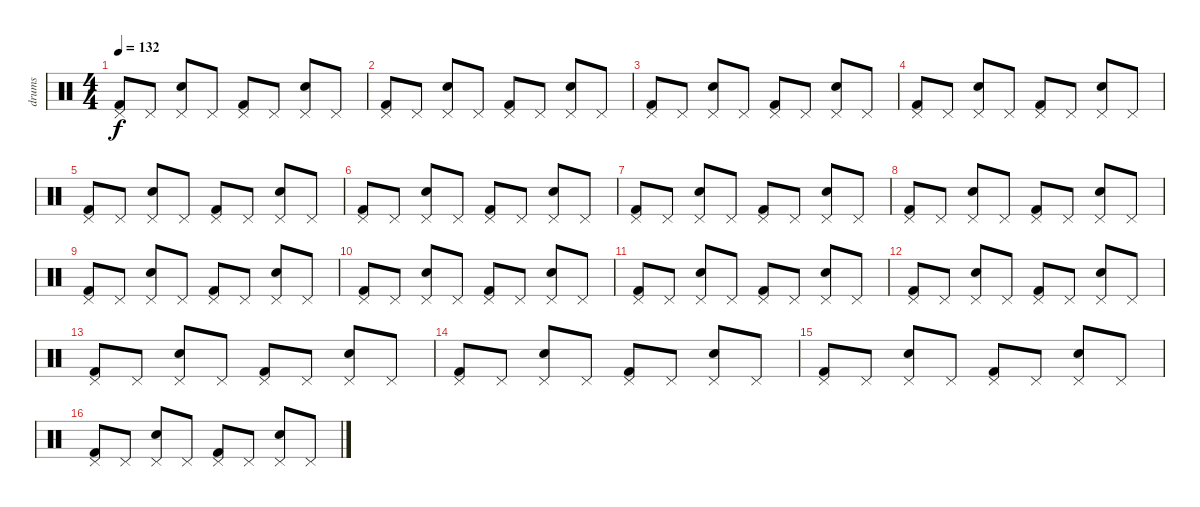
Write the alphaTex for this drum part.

\track ("drums" "drums") {instrument percussion}
\staff {score}
\articulation defaults
\ts (4 4)
\tempo 132
\clef neutral
\ks c
("Kick (hit) 2" "Pedal Hi-Hat (hit)").8{dy f} "Pedal Hi-Hat (hit)".8 ("Electric Snare (hit)" "Pedal Hi-Hat (hit)").8 "Pedal Hi-Hat (hit)".8 ("Kick (hit) 2" "Pedal Hi-Hat (hit)").8 "Pedal Hi-Hat (hit)".8 ("Electric Snare (hit)" "Pedal Hi-Hat (hit)").8 "Pedal Hi-Hat (hit)".8 |
("Kick (hit) 2" "Pedal Hi-Hat (hit)").8 "Pedal Hi-Hat (hit)".8 ("Electric Snare (hit)" "Pedal Hi-Hat (hit)").8 "Pedal Hi-Hat (hit)".8 ("Kick (hit) 2" "Pedal Hi-Hat (hit)").8 "Pedal Hi-Hat (hit)".8 ("Electric Snare (hit)" "Pedal Hi-Hat (hit)").8 "Pedal Hi-Hat (hit)".8 |
("Kick (hit) 2" "Pedal Hi-Hat (hit)").8 "Pedal Hi-Hat (hit)".8 ("Electric Snare (hit)" "Pedal Hi-Hat (hit)").8 "Pedal Hi-Hat (hit)".8 ("Kick (hit) 2" "Pedal Hi-Hat (hit)").8 "Pedal Hi-Hat (hit)".8 ("Electric Snare (hit)" "Pedal Hi-Hat (hit)").8 "Pedal Hi-Hat (hit)".8 |
("Kick (hit) 2" "Pedal Hi-Hat (hit)").8 "Pedal Hi-Hat (hit)".8 ("Electric Snare (hit)" "Pedal Hi-Hat (hit)").8 "Pedal Hi-Hat (hit)".8 ("Kick (hit) 2" "Pedal Hi-Hat (hit)").8 "Pedal Hi-Hat (hit)".8 ("Electric Snare (hit)" "Pedal Hi-Hat (hit)").8 "Pedal Hi-Hat (hit)".8 |
("Kick (hit) 2" "Pedal Hi-Hat (hit)").8 "Pedal Hi-Hat (hit)".8 ("Electric Snare (hit)" "Pedal Hi-Hat (hit)").8 "Pedal Hi-Hat (hit)".8 ("Kick (hit) 2" "Pedal Hi-Hat (hit)").8 "Pedal Hi-Hat (hit)".8 ("Electric Snare (hit)" "Pedal Hi-Hat (hit)").8 "Pedal Hi-Hat (hit)".8 |
("Kick (hit) 2" "Pedal Hi-Hat (hit)").8 "Pedal Hi-Hat (hit)".8 ("Electric Snare (hit)" "Pedal Hi-Hat (hit)").8 "Pedal Hi-Hat (hit)".8 ("Kick (hit) 2" "Pedal Hi-Hat (hit)").8 "Pedal Hi-Hat (hit)".8 ("Electric Snare (hit)" "Pedal Hi-Hat (hit)").8 "Pedal Hi-Hat (hit)".8 |
("Kick (hit) 2" "Pedal Hi-Hat (hit)").8 "Pedal Hi-Hat (hit)".8 ("Electric Snare (hit)" "Pedal Hi-Hat (hit)").8 "Pedal Hi-Hat (hit)".8 ("Kick (hit) 2" "Pedal Hi-Hat (hit)").8 "Pedal Hi-Hat (hit)".8 ("Electric Snare (hit)" "Pedal Hi-Hat (hit)").8 "Pedal Hi-Hat (hit)".8 |
("Kick (hit) 2" "Pedal Hi-Hat (hit)").8 "Pedal Hi-Hat (hit)".8 ("Electric Snare (hit)" "Pedal Hi-Hat (hit)").8 "Pedal Hi-Hat (hit)".8 ("Kick (hit) 2" "Pedal Hi-Hat (hit)").8 "Pedal Hi-Hat (hit)".8 ("Electric Snare (hit)" "Pedal Hi-Hat (hit)").8 "Pedal Hi-Hat (hit)".8 |
("Kick (hit) 2" "Pedal Hi-Hat (hit)").8 "Pedal Hi-Hat (hit)".8 ("Electric Snare (hit)" "Pedal Hi-Hat (hit)").8 "Pedal Hi-Hat (hit)".8 ("Kick (hit) 2" "Pedal Hi-Hat (hit)").8 "Pedal Hi-Hat (hit)".8 ("Electric Snare (hit)" "Pedal Hi-Hat (hit)").8 "Pedal Hi-Hat (hit)".8 |
("Kick (hit) 2" "Pedal Hi-Hat (hit)").8 "Pedal Hi-Hat (hit)".8 ("Electric Snare (hit)" "Pedal Hi-Hat (hit)").8 "Pedal Hi-Hat (hit)".8 ("Kick (hit) 2" "Pedal Hi-Hat (hit)").8 "Pedal Hi-Hat (hit)".8 ("Electric Snare (hit)" "Pedal Hi-Hat (hit)").8 "Pedal Hi-Hat (hit)".8 |
("Kick (hit) 2" "Pedal Hi-Hat (hit)").8 "Pedal Hi-Hat (hit)".8 ("Electric Snare (hit)" "Pedal Hi-Hat (hit)").8 "Pedal Hi-Hat (hit)".8 ("Kick (hit) 2" "Pedal Hi-Hat (hit)").8 "Pedal Hi-Hat (hit)".8 ("Electric Snare (hit)" "Pedal Hi-Hat (hit)").8 "Pedal Hi-Hat (hit)".8 |
("Kick (hit) 2" "Pedal Hi-Hat (hit)").8 "Pedal Hi-Hat (hit)".8 ("Electric Snare (hit)" "Pedal Hi-Hat (hit)").8 "Pedal Hi-Hat (hit)".8 ("Kick (hit) 2" "Pedal Hi-Hat (hit)").8 "Pedal Hi-Hat (hit)".8 ("Electric Snare (hit)" "Pedal Hi-Hat (hit)").8 "Pedal Hi-Hat (hit)".8 |
("Kick (hit) 2" "Pedal Hi-Hat (hit)").8 "Pedal Hi-Hat (hit)".8 ("Electric Snare (hit)" "Pedal Hi-Hat (hit)").8 "Pedal Hi-Hat (hit)".8 ("Kick (hit) 2" "Pedal Hi-Hat (hit)").8 "Pedal Hi-Hat (hit)".8 ("Electric Snare (hit)" "Pedal Hi-Hat (hit)").8 "Pedal Hi-Hat (hit)".8 |
("Kick (hit) 2" "Pedal Hi-Hat (hit)").8 "Pedal Hi-Hat (hit)".8 ("Electric Snare (hit)" "Pedal Hi-Hat (hit)").8 "Pedal Hi-Hat (hit)".8 ("Kick (hit) 2" "Pedal Hi-Hat (hit)").8 "Pedal Hi-Hat (hit)".8 ("Electric Snare (hit)" "Pedal Hi-Hat (hit)").8 "Pedal Hi-Hat (hit)".8 |
("Kick (hit) 2" "Pedal Hi-Hat (hit)").8 "Pedal Hi-Hat (hit)".8 ("Electric Snare (hit)" "Pedal Hi-Hat (hit)").8 "Pedal Hi-Hat (hit)".8 ("Kick (hit) 2" "Pedal Hi-Hat (hit)").8 "Pedal Hi-Hat (hit)".8 ("Electric Snare (hit)" "Pedal Hi-Hat (hit)").8 "Pedal Hi-Hat (hit)".8 |
("Kick (hit) 2" "Pedal Hi-Hat (hit)").8 "Pedal Hi-Hat (hit)".8 ("Electric Snare (hit)" "Pedal Hi-Hat (hit)").8 "Pedal Hi-Hat (hit)".8 ("Kick (hit) 2" "Pedal Hi-Hat (hit)").8 "Pedal Hi-Hat (hit)".8 ("Electric Snare (hit)" "Pedal Hi-Hat (hit)").8 "Pedal Hi-Hat (hit)".8
